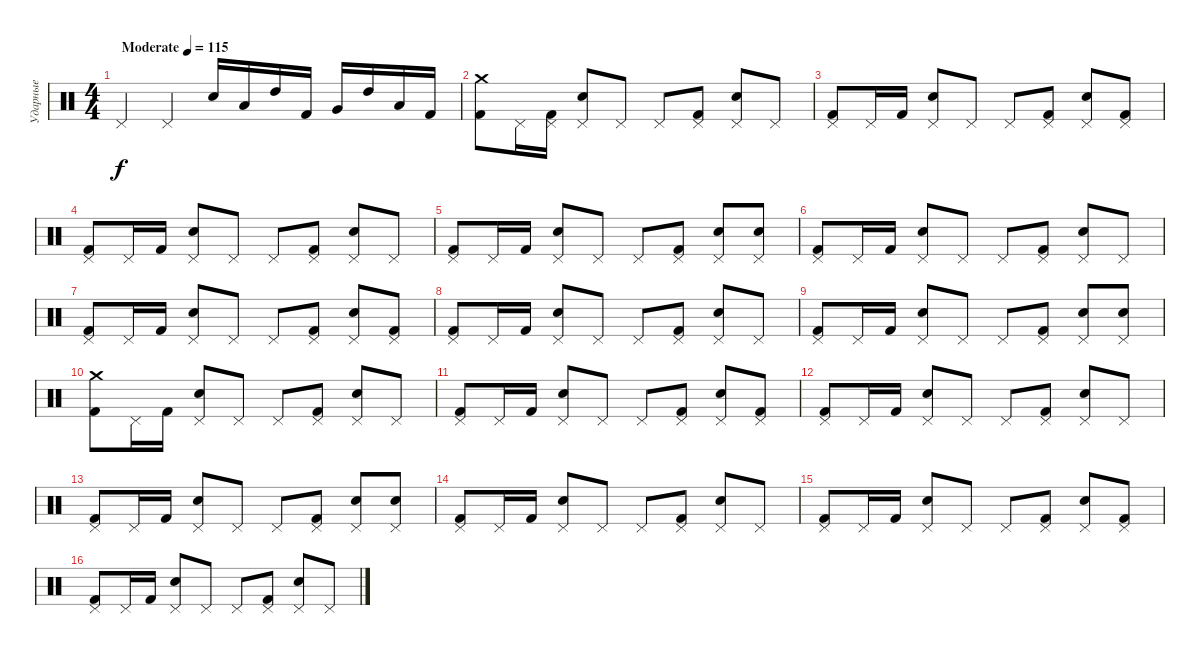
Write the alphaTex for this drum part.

\track ("Ударные" "Ударные") {instrument percussion}
\staff {score}
\articulation defaults
\ts (4 4)
\tempo (115 "Moderate")
\clef neutral
\ks c "Pedal Hi-Hat (hit)".4{dy f} "Pedal Hi-Hat (hit)".4 "Electric Snare (hit)".16 "Low Tom (hit)".16 "High Tom (hit)".16 "Kick (hit) 2".16 "Very Low Tom (hit)".16 "High Tom (hit)".16 "Low Tom (hit)".16 "Kick (hit) 2".16
|
("Crash medium (hit)" "Kick (hit) 2").8 "Pedal Hi-Hat (hit)".16 ("Pedal Hi-Hat (hit)" "Kick (hit) 2").16 ("Pedal Hi-Hat (hit)" "Electric Snare (hit)").8 "Pedal Hi-Hat (hit)".8 "Pedal Hi-Hat (hit)".8 ("Pedal Hi-Hat (hit)" "Kick (hit) 2").8 ("Pedal Hi-Hat (hit)" "Electric Snare (hit)").8 "Pedal Hi-Hat (hit)".8 |
("Pedal Hi-Hat (hit)" "Kick (hit) 2").8 "Pedal Hi-Hat (hit)".16 "Kick (hit) 2".16 ("Pedal Hi-Hat (hit)" "Electric Snare (hit)").8 "Pedal Hi-Hat (hit)".8 "Pedal Hi-Hat (hit)".8 ("Pedal Hi-Hat (hit)" "Kick (hit) 2").8 ("Pedal Hi-Hat (hit)" "Electric Snare (hit)").8 ("Pedal Hi-Hat (hit)" "Kick (hit) 2").8 |
("Pedal Hi-Hat (hit)" "Kick (hit) 2").8 "Pedal Hi-Hat (hit)".16 "Kick (hit) 2".16 ("Pedal Hi-Hat (hit)" "Electric Snare (hit)").8 "Pedal Hi-Hat (hit)".8 "Pedal Hi-Hat (hit)".8 ("Pedal Hi-Hat (hit)" "Kick (hit) 2").8 ("Pedal Hi-Hat (hit)" "Electric Snare (hit)").8 "Pedal Hi-Hat (hit)".8 |
("Pedal Hi-Hat (hit)" "Kick (hit) 2").8 "Pedal Hi-Hat (hit)".16 "Kick (hit) 2".16 ("Pedal Hi-Hat (hit)" "Electric Snare (hit)").8 "Pedal Hi-Hat (hit)".8 "Pedal Hi-Hat (hit)".8 ("Pedal Hi-Hat (hit)" "Kick (hit) 2").8 ("Pedal Hi-Hat (hit)" "Electric Snare (hit)").8 ("Pedal Hi-Hat (hit)" "Electric Snare (hit)").8 |
("Pedal Hi-Hat (hit)" "Kick (hit) 2").8 "Pedal Hi-Hat (hit)".16 "Kick (hit) 2".16 ("Pedal Hi-Hat (hit)" "Electric Snare (hit)").8 "Pedal Hi-Hat (hit)".8 "Pedal Hi-Hat (hit)".8 ("Pedal Hi-Hat (hit)" "Kick (hit) 2").8 ("Pedal Hi-Hat (hit)" "Electric Snare (hit)").8 "Pedal Hi-Hat (hit)".8 |
("Pedal Hi-Hat (hit)" "Kick (hit) 2").8 "Pedal Hi-Hat (hit)".16 "Kick (hit) 2".16 ("Pedal Hi-Hat (hit)" "Electric Snare (hit)").8 "Pedal Hi-Hat (hit)".8 "Pedal Hi-Hat (hit)".8 ("Pedal Hi-Hat (hit)" "Kick (hit) 2").8 ("Pedal Hi-Hat (hit)" "Electric Snare (hit)").8 ("Pedal Hi-Hat (hit)" "Kick (hit) 2").8 |
("Pedal Hi-Hat (hit)" "Kick (hit) 2").8 "Pedal Hi-Hat (hit)".16 "Kick (hit) 2".16 ("Pedal Hi-Hat (hit)" "Electric Snare (hit)").8 "Pedal Hi-Hat (hit)".8 "Pedal Hi-Hat (hit)".8 ("Pedal Hi-Hat (hit)" "Kick (hit) 2").8 ("Pedal Hi-Hat (hit)" "Electric Snare (hit)").8 "Pedal Hi-Hat (hit)".8 |
("Pedal Hi-Hat (hit)" "Kick (hit) 2").8 "Pedal Hi-Hat (hit)".16 "Kick (hit) 2".16 ("Pedal Hi-Hat (hit)" "Electric Snare (hit)").8 "Pedal Hi-Hat (hit)".8 "Pedal Hi-Hat (hit)".8 ("Pedal Hi-Hat (hit)" "Kick (hit) 2").8 ("Pedal Hi-Hat (hit)" "Electric Snare (hit)").8 ("Pedal Hi-Hat (hit)" "Electric Snare (hit)").8 |
("Crash medium (hit)" "Kick (hit) 2").8 "Pedal Hi-Hat (hit)".16 "Kick (hit) 2".16 ("Pedal Hi-Hat (hit)" "Electric Snare (hit)").8 "Pedal Hi-Hat (hit)".8 "Pedal Hi-Hat (hit)".8 ("Pedal Hi-Hat (hit)" "Kick (hit) 2").8 ("Pedal Hi-Hat (hit)" "Electric Snare (hit)").8 "Pedal Hi-Hat (hit)".8 |
("Pedal Hi-Hat (hit)" "Kick (hit) 2").8 "Pedal Hi-Hat (hit)".16 "Kick (hit) 2".16 ("Pedal Hi-Hat (hit)" "Electric Snare (hit)").8 "Pedal Hi-Hat (hit)".8 "Pedal Hi-Hat (hit)".8 ("Pedal Hi-Hat (hit)" "Kick (hit) 2").8 ("Pedal Hi-Hat (hit)" "Electric Snare (hit)").8 ("Pedal Hi-Hat (hit)" "Kick (hit) 2").8 |
("Pedal Hi-Hat (hit)" "Kick (hit) 2").8 "Pedal Hi-Hat (hit)".16 "Kick (hit) 2".16 ("Pedal Hi-Hat (hit)" "Electric Snare (hit)").8 "Pedal Hi-Hat (hit)".8 "Pedal Hi-Hat (hit)".8 ("Pedal Hi-Hat (hit)" "Kick (hit) 2").8 ("Pedal Hi-Hat (hit)" "Electric Snare (hit)").8 "Pedal Hi-Hat (hit)".8 |
("Pedal Hi-Hat (hit)" "Kick (hit) 2").8 "Pedal Hi-Hat (hit)".16 "Kick (hit) 2".16 ("Pedal Hi-Hat (hit)" "Electric Snare (hit)").8 "Pedal Hi-Hat (hit)".8 "Pedal Hi-Hat (hit)".8 ("Pedal Hi-Hat (hit)" "Kick (hit) 2").8 ("Pedal Hi-Hat (hit)" "Electric Snare (hit)").8 ("Pedal Hi-Hat (hit)" "Electric Snare (hit)").8 |
("Pedal Hi-Hat (hit)" "Kick (hit) 2").8 "Pedal Hi-Hat (hit)".16 "Kick (hit) 2".16 ("Pedal Hi-Hat (hit)" "Electric Snare (hit)").8 "Pedal Hi-Hat (hit)".8 "Pedal Hi-Hat (hit)".8 ("Pedal Hi-Hat (hit)" "Kick (hit) 2").8 ("Pedal Hi-Hat (hit)" "Electric Snare (hit)").8 "Pedal Hi-Hat (hit)".8 |
("Pedal Hi-Hat (hit)" "Kick (hit) 2").8 "Pedal Hi-Hat (hit)".16 "Kick (hit) 2".16 ("Pedal Hi-Hat (hit)" "Electric Snare (hit)").8 "Pedal Hi-Hat (hit)".8 "Pedal Hi-Hat (hit)".8 ("Pedal Hi-Hat (hit)" "Kick (hit) 2").8 ("Pedal Hi-Hat (hit)" "Electric Snare (hit)").8 ("Pedal Hi-Hat (hit)" "Kick (hit) 2").8 |
("Pedal Hi-Hat (hit)" "Kick (hit) 2").8 "Pedal Hi-Hat (hit)".16 "Kick (hit) 2".16 ("Pedal Hi-Hat (hit)" "Electric Snare (hit)").8 "Pedal Hi-Hat (hit)".8 "Pedal Hi-Hat (hit)".8 ("Pedal Hi-Hat (hit)" "Kick (hit) 2").8 ("Pedal Hi-Hat (hit)" "Electric Snare (hit)").8 "Pedal Hi-Hat (hit)".8
